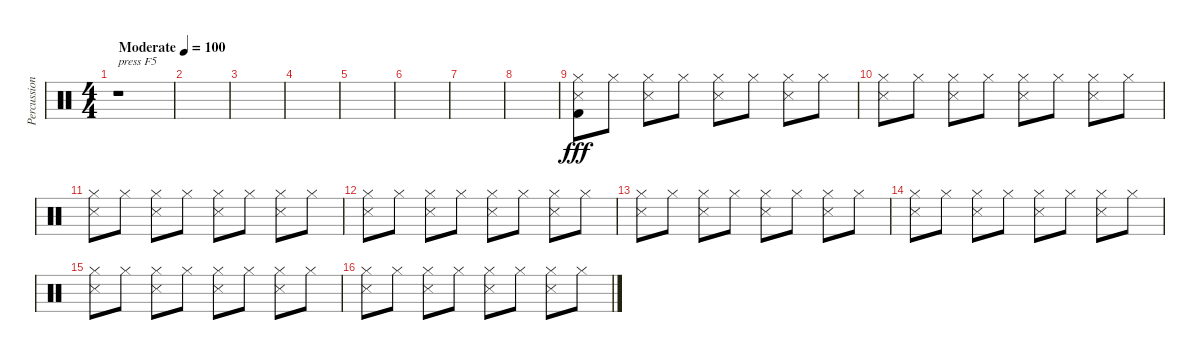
\track ("Percussion" "Percussion") {instrument percussion}
\staff {score}
\articulation defaults
\ts (4 4)
\tempo (100 "Moderate")
\clef neutral
\ks c
r.1{txt "press F5" dy fff} |
|
|
|
|
|
|
|
("Hi-Hat (closed)" "Snare (side stick) 3" "Kick (hit) 2").8 "Hi-Hat (closed)".8 ("Hi-Hat (closed)" "Snare (side stick) 3").8 "Hi-Hat (closed)".8 ("Hi-Hat (closed)" "Snare (side stick) 3").8 "Hi-Hat (closed)".8 ("Hi-Hat (closed)" "Snare (side stick) 3").8 "Hi-Hat (closed)".8 |
("Hi-Hat (closed)" "Snare (side stick) 3").8 "Hi-Hat (closed)".8 ("Hi-Hat (closed)" "Snare (side stick) 3").8 "Hi-Hat (closed)".8 ("Hi-Hat (closed)" "Snare (side stick) 3").8 "Hi-Hat (closed)".8 ("Hi-Hat (closed)" "Snare (side stick) 3").8 "Hi-Hat (closed)".8 |
("Hi-Hat (closed)" "Snare (side stick) 3").8 "Hi-Hat (closed)".8 ("Hi-Hat (closed)" "Snare (side stick) 3").8 "Hi-Hat (closed)".8 ("Hi-Hat (closed)" "Snare (side stick) 3").8 "Hi-Hat (closed)".8 ("Hi-Hat (closed)" "Snare (side stick) 3").8 "Hi-Hat (closed)".8 |
("Hi-Hat (closed)" "Snare (side stick) 3").8 "Hi-Hat (closed)".8 ("Hi-Hat (closed)" "Snare (side stick) 3").8 "Hi-Hat (closed)".8 ("Hi-Hat (closed)" "Snare (side stick) 3").8 "Hi-Hat (closed)".8 ("Hi-Hat (closed)" "Snare (side stick) 3").8 "Hi-Hat (closed)".8 |
("Hi-Hat (closed)" "Snare (side stick) 3").8 "Hi-Hat (closed)".8 ("Hi-Hat (closed)" "Snare (side stick) 3").8 "Hi-Hat (closed)".8 ("Hi-Hat (closed)" "Snare (side stick) 3").8 "Hi-Hat (closed)".8 ("Hi-Hat (closed)" "Snare (side stick) 3").8 "Hi-Hat (closed)".8 |
("Hi-Hat (closed)" "Snare (side stick) 3").8 "Hi-Hat (closed)".8 ("Hi-Hat (closed)" "Snare (side stick) 3").8 "Hi-Hat (closed)".8 ("Hi-Hat (closed)" "Snare (side stick) 3").8 "Hi-Hat (closed)".8 ("Hi-Hat (closed)" "Snare (side stick) 3").8 "Hi-Hat (closed)".8 |
("Hi-Hat (closed)" "Snare (side stick) 3").8 "Hi-Hat (closed)".8 ("Hi-Hat (closed)" "Snare (side stick) 3").8 "Hi-Hat (closed)".8 ("Hi-Hat (closed)" "Snare (side stick) 3").8 "Hi-Hat (closed)".8 ("Hi-Hat (closed)" "Snare (side stick) 3").8 "Hi-Hat (closed)".8 |
("Hi-Hat (closed)" "Snare (side stick) 3").8 "Hi-Hat (closed)".8 ("Hi-Hat (closed)" "Snare (side stick) 3").8 "Hi-Hat (closed)".8 ("Hi-Hat (closed)" "Snare (side stick) 3").8 "Hi-Hat (closed)".8 ("Hi-Hat (closed)" "Snare (side stick) 3").8 "Hi-Hat (closed)".8
